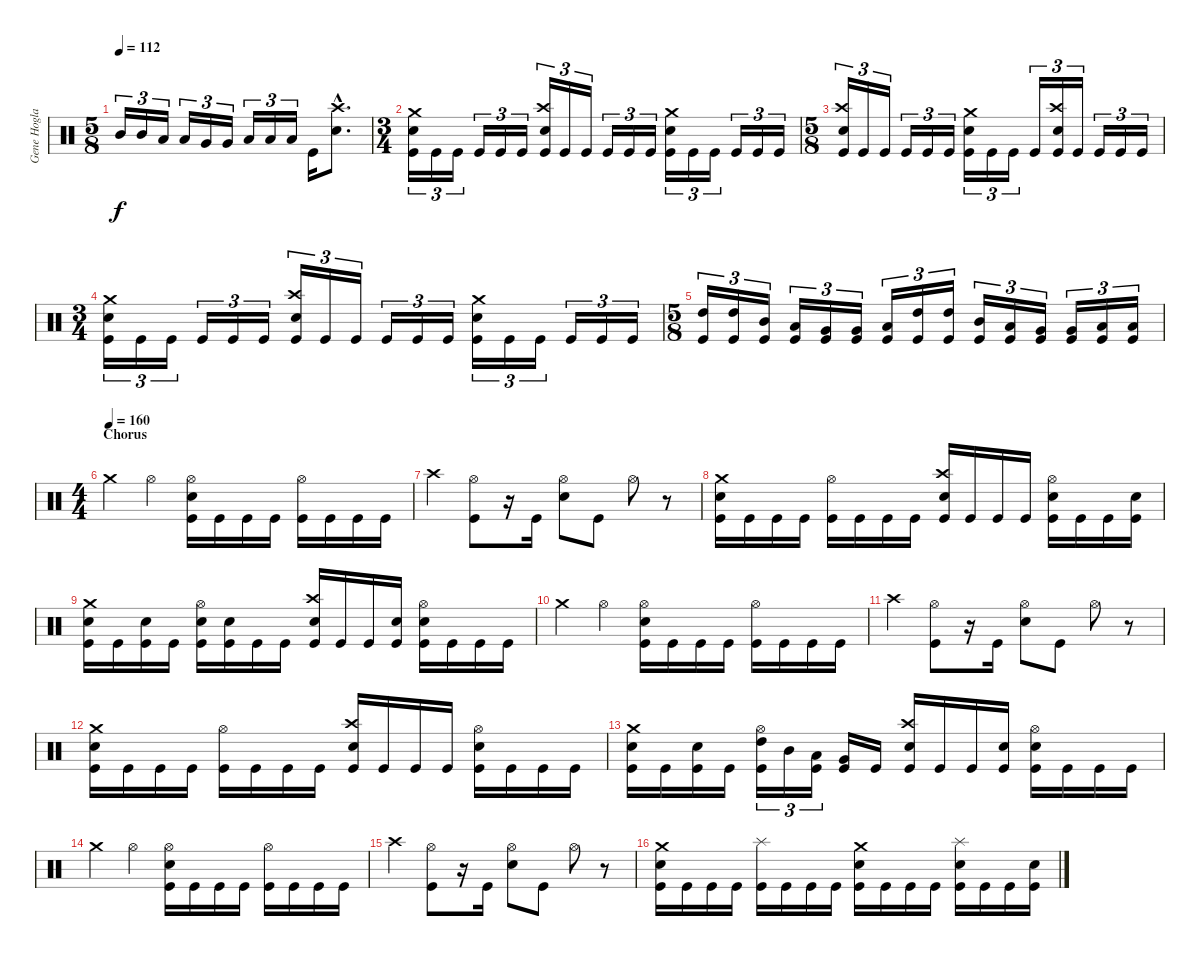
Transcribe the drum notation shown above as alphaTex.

\track ("Gene Hoglan" "Gene Hogla") {instrument percussion}
\staff {score}
\articulation defaults
\ts (5 8)
\tempo 112
\clef neutral
\ks c "Mid Tom (hit)".16{tu (3 2) dy f} "Mid Tom (hit)".16{tu (3 2)} "Low Tom (hit)".16{tu (3 2)} "Low Tom (hit)".16{tu (3 2)} "Very Low Tom (hit)".16{tu (3 2)} "Very Low Tom (hit)".16{tu (3 2)} "Low Floor Tom (hit)".16{tu (3 2)} "Low Floor Tom (hit)".16{tu (3 2)} "Low Floor Tom (hit)".16{tu (3 2)} "Kick (hit)".16
("Crash high (hit)"{hac} "Electric Snare (hit)"{hac}).8{d} |
\ts (3 4)
("Crash medium (hit)" "Electric Snare (hit)" "Kick (hit)").16{tu (3 2)} "Kick (hit)".16{tu (3 2)} "Kick (hit)".16{tu (3 2)} "Kick (hit)".16{tu (3 2)} "Kick (hit)".16{tu (3 2)} "Kick (hit)".16{tu (3 2)} ("Crash high (hit)" "Electric Snare (hit)" "Kick (hit)").16{tu (3 2)} "Kick (hit)".16{tu (3 2)} "Kick (hit)".16{tu (3 2)} "Kick (hit)".16{tu (3 2)} "Kick (hit)".16{tu (3 2)} "Kick (hit)".16{tu (3 2)} ("Crash medium (hit)" "Electric Snare (hit)" "Kick (hit)").16{tu (3 2)} "Kick (hit)".16{tu (3 2)} "Kick (hit)".16{tu (3 2)} "Kick (hit)".16{tu (3 2)} "Kick (hit)".16{tu (3 2)} "Kick (hit)".16{tu (3 2)} |
\ts (5 8)
("Crash high (hit)" "Electric Snare (hit)" "Kick (hit)").16{tu (3 2)} "Kick (hit)".16{tu (3 2)} "Kick (hit)".16{tu (3 2)} "Kick (hit)".16{tu (3 2)} "Kick (hit)".16{tu (3 2)} "Kick (hit)".16{tu (3 2)} ("Crash medium (hit)" "Electric Snare (hit)" "Kick (hit)").16{tu (3 2)} "Kick (hit)".16{tu (3 2)} "Kick (hit)".16{tu (3 2)} "Kick (hit)".16{tu (3 2)} ("Crash high (hit)" "Electric Snare (hit)" "Kick (hit)").16{tu (3 2)} "Kick (hit)".16{tu (3 2)} "Kick (hit)".16{tu (3 2)} "Kick (hit)".16{tu (3 2)} "Kick (hit)".16{tu (3 2)} |
\ts (3 4)
("Crash medium (hit)" "Electric Snare (hit)" "Kick (hit)").16{tu (3 2)} "Kick (hit)".16{tu (3 2)} "Kick (hit)".16{tu (3 2)} "Kick (hit)".16{tu (3 2)} "Kick (hit)".16{tu (3 2)} "Kick (hit)".16{tu (3 2)} ("Crash high (hit)" "Electric Snare (hit)" "Kick (hit)").16{tu (3 2)} "Kick (hit)".16{tu (3 2)} "Kick (hit)".16{tu (3 2)} "Kick (hit)".16{tu (3 2)} "Kick (hit)".16{tu (3 2)} "Kick (hit)".16{tu (3 2)} ("Crash medium (hit)" "Electric Snare (hit)" "Kick (hit)").16{tu (3 2)} "Kick (hit)".16{tu (3 2)} "Kick (hit)".16{tu (3 2)} "Kick (hit)".16{tu (3 2)} "Kick (hit)".16{tu (3 2)} "Kick (hit)".16{tu (3 2)} |
\ts (5 8)
("High Tom (hit)" "Kick (hit)").16{tu (3 2)} ("High Tom (hit)" "Kick (hit)").16{tu (3 2)} ("Mid Tom (hit)" "Kick (hit)").16{tu (3 2)} ("Low Tom (hit)" "Kick (hit)").16{tu (3 2)} ("Very Low Tom (hit)" "Kick (hit)").16{tu (3 2)} ("Very Low Tom (hit)" "Kick (hit)").16{tu (3 2)} ("Low Floor Tom (hit)" "Kick (hit)").16{tu (3 2)} ("High Tom (hit)" "Kick (hit)").16{tu (3 2)} ("High Tom (hit)" "Kick (hit)").16{tu (3 2)} ("Mid Tom (hit)" "Kick (hit)").16{tu (3 2)} ("Low Tom (hit)" "Kick (hit)").16{tu (3 2)} ("Very Low Tom (hit)" "Kick (hit)").16{tu (3 2)} ("Very Low Tom (hit)" "Kick (hit)").16{tu (3 2)} ("Low Floor Tom (hit)" "Kick (hit)").16{tu (3 2)} ("Low Floor Tom (hit)" "Kick (hit)").16{tu (3 2)} |
\ts (4 4)
\section ("" "Chorus")
\tempo (160)
"Crash medium (hit)".4 "Hi-Hat (open)".4 ("Hi-Hat (open)" "Electric Snare (hit)" "Kick (hit)").16 "Kick (hit)".16 "Kick (hit)".16 "Kick (hit)".16 ("Hi-Hat (open)" "Kick (hit)").16 "Kick (hit)".16 "Kick (hit)".16 "Kick (hit)".16 |
"Crash high (hit)".4 ("Hi-Hat (open)" "Kick (hit)").8 r.16 "Kick (hit)".16 ("Hi-Hat (open)" "Electric Snare (hit)").8 "Kick (hit)".8 "Hi-Hat (open)".8 r.8 |
("Crash medium (hit)" "Electric Snare (hit)" "Kick (hit)").16 "Kick (hit)".16 "Kick (hit)".16 "Kick (hit)".16 ("Hi-Hat (open)" "Kick (hit)").16 "Kick (hit)".16 "Kick (hit)".16 "Kick (hit)".16 ("Crash high (hit)" "Electric Snare (hit)" "Kick (hit)").16 "Kick (hit)".16 "Kick (hit)".16 "Kick (hit)".16 ("Hi-Hat (open)" "Electric Snare (hit)" "Kick (hit)").16 "Kick (hit)".16 "Kick (hit)".16 ("Electric Snare (hit)" "Kick (hit)").16 |
("Crash medium (hit)" "Electric Snare (hit)" "Kick (hit)").16 "Kick (hit)".16 ("Electric Snare (hit)" "Kick (hit)").16 "Kick (hit)".16 ("Hi-Hat (open)" "Electric Snare (hit)" "Kick (hit)").16 ("Electric Snare (hit)" "Kick (hit)").16 "Kick (hit)".16 "Kick (hit)".16 ("Crash high (hit)" "Electric Snare (hit)" "Kick (hit)").16 "Kick (hit)".16 "Kick (hit)".16 ("Electric Snare (hit)" "Kick (hit)").16 ("Hi-Hat (open)" "Electric Snare (hit)" "Kick (hit)").16 "Kick (hit)".16 "Kick (hit)".16 "Kick (hit)".16 |
"Crash medium (hit)".4 "Hi-Hat (open)".4 ("Hi-Hat (open)" "Electric Snare (hit)" "Kick (hit)").16 "Kick (hit)".16 "Kick (hit)".16 "Kick (hit)".16 ("Hi-Hat (open)" "Kick (hit)").16 "Kick (hit)".16 "Kick (hit)".16 "Kick (hit)".16 |
"Crash high (hit)".4 ("Hi-Hat (open)" "Kick (hit)").8 r.16 "Kick (hit)".16 ("Hi-Hat (open)" "Electric Snare (hit)").8 "Kick (hit)".8 "Hi-Hat (open)".8 r.8 |
("Crash medium (hit)" "Electric Snare (hit)" "Kick (hit)").16 "Kick (hit)".16 "Kick (hit)".16 "Kick (hit)".16 ("Hi-Hat (open)" "Kick (hit)").16 "Kick (hit)".16 "Kick (hit)".16 "Kick (hit)".16 ("Crash high (hit)" "Electric Snare (hit)" "Kick (hit)").16 "Kick (hit)".16 "Kick (hit)".16 "Kick (hit)".16 ("Hi-Hat (open)" "Electric Snare (hit)" "Kick (hit)").16 "Kick (hit)".16 "Kick (hit)".16 "Kick (hit)".16 |
("Crash medium (hit)" "Electric Snare (hit)" "Kick (hit)").16 "Kick (hit)".16 ("Electric Snare (hit)" "Kick (hit)").16 "Kick (hit)".16 ("Hi-Hat (open)" "High Tom (hit)" "Kick (hit)").16{tu (3 2)} "Mid Tom (hit)".16{tu (3 2)} ("Low Tom (hit)" "Kick (hit)").16{tu (3 2)} ("Very Low Tom (hit)" "Kick (hit)").16 "Kick (hit)".16 ("Crash high (hit)" "Electric Snare (hit)" "Kick (hit)").16 "Kick (hit)".16 "Kick (hit)".16 ("Electric Snare (hit)" "Kick (hit)").16 ("Hi-Hat (open)" "Electric Snare (hit)" "Kick (hit)").16 "Kick (hit)".16 "Kick (hit)".16 "Kick (hit)".16 |
"Crash medium (hit)".4 "Hi-Hat (open)".4 ("Hi-Hat (open)" "Electric Snare (hit)" "Kick (hit)").16 "Kick (hit)".16 "Kick (hit)".16 "Kick (hit)".16 ("Hi-Hat (open)" "Kick (hit)").16 "Kick (hit)".16 "Kick (hit)".16 "Kick (hit)".16 |
"Crash high (hit)".4 ("Hi-Hat (open)" "Kick (hit)").8 r.16 "Kick (hit)".16 ("Hi-Hat (open)" "Electric Snare (hit)").8 "Kick (hit)".8 "Hi-Hat (open)".8 r.8 |
("Crash medium (hit)" "Electric Snare (hit)" "Kick (hit)").16 "Kick (hit)".16 "Kick (hit)".16 "Kick (hit)".16 ("Splash (hit)" "Kick (hit)").16 "Kick (hit)".16 "Kick (hit)".16 "Kick (hit)".16 ("Crash medium (hit)" "Electric Snare (hit)" "Kick (hit)").16 "Kick (hit)".16 "Kick (hit)".16 "Kick (hit)".16 ("Splash (hit)" "Electric Snare (hit)" "Kick (hit)").16 "Kick (hit)".16 "Kick (hit)".16 ("Electric Snare (hit)" "Kick (hit)").16
